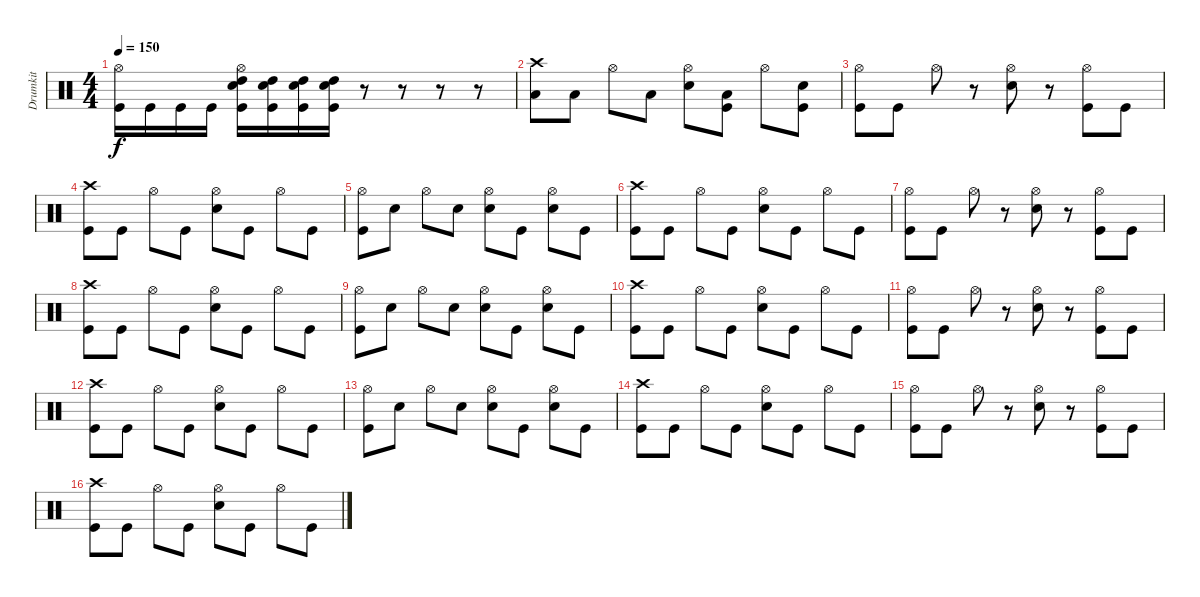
\track ("Drumkit" "Drumkit") {instrument percussion}
\staff {score}
\articulation defaults
\ts (4 4)
\tempo 150
\clef neutral
\ks c
("Hi-Hat (open)" "Kick (hit)").16{dy f} "Kick (hit)".16 "Kick (hit)".16 "Kick (hit)".16 ("Hi-Hat (open)" "High Tom (hit)" "Snare (hit) 2" "Kick (hit)").16 ("High Tom (hit)" "Snare (hit) 2" "Kick (hit)").16 ("High Tom (hit)" "Snare (hit) 2" "Kick (hit)").16 ("High Tom (hit)" "Snare (hit) 2" "Kick (hit)").16 r.8 r.8 r.8 r.8 |
("Low Floor Tom (hit)" "Crash high (hit)").8 "Low Floor Tom (hit)".8 "Hi-Hat (open)".8 "Low Floor Tom (hit)".8 ("Snare (hit) 2" "Hi-Hat (open)").8 ("Low Floor Tom (hit)" "Kick (hit)").8 "Hi-Hat (open)".8 ("Snare (hit)" "Kick (hit)").8 |
("Kick (hit)" "Hi-Hat (open)").8 "Kick (hit)".8 "Hi-Hat (open)".8 r.8 ("Snare (hit) 2" "Hi-Hat (open)").8 r.8 ("Kick (hit)" "Hi-Hat (open)").8 "Kick (hit)".8 |
("Kick (hit)" "Crash high (hit)").8 "Kick (hit)".8 "Hi-Hat (open)".8 "Kick (hit)".8 ("Snare (hit) 2" "Hi-Hat (open)").8 "Kick (hit)".8 "Hi-Hat (open)".8 "Kick (hit)".8 |
("Kick (hit)" "Hi-Hat (open)").8 "Snare (hit) 2".8 "Hi-Hat (open)".8 "Snare (hit) 2".8 ("Snare (hit) 2" "Hi-Hat (open)").8 "Kick (hit)".8 ("Snare (hit) 2" "Hi-Hat (open)").8 "Kick (hit)".8 |
("Kick (hit)" "Crash high (hit)").8 "Kick (hit)".8 "Hi-Hat (open)".8 "Kick (hit)".8 ("Snare (hit) 2" "Hi-Hat (open)").8 "Kick (hit)".8 "Hi-Hat (open)".8 "Kick (hit)".8 |
("Kick (hit)" "Hi-Hat (open)").8 "Kick (hit)".8 "Hi-Hat (open)".8 r.8 ("Snare (hit) 2" "Hi-Hat (open)").8 r.8 ("Kick (hit)" "Hi-Hat (open)").8 "Kick (hit)".8 |
("Kick (hit)" "Crash high (hit)").8 "Kick (hit)".8 "Hi-Hat (open)".8 "Kick (hit)".8 ("Snare (hit) 2" "Hi-Hat (open)").8 "Kick (hit)".8 "Hi-Hat (open)".8 "Kick (hit)".8 |
("Kick (hit)" "Hi-Hat (open)").8 "Snare (hit) 2".8 "Hi-Hat (open)".8 "Snare (hit) 2".8 ("Snare (hit) 2" "Hi-Hat (open)").8 "Kick (hit)".8 ("Snare (hit) 2" "Hi-Hat (open)").8 "Kick (hit)".8 |
("Kick (hit)" "Crash high (hit)").8 "Kick (hit)".8 "Hi-Hat (open)".8 "Kick (hit)".8 ("Snare (hit) 2" "Hi-Hat (open)").8 "Kick (hit)".8 "Hi-Hat (open)".8 "Kick (hit)".8 |
("Kick (hit)" "Hi-Hat (open)").8 "Kick (hit)".8 "Hi-Hat (open)".8 r.8 ("Snare (hit) 2" "Hi-Hat (open)").8 r.8 ("Kick (hit)" "Hi-Hat (open)").8 "Kick (hit)".8 |
("Kick (hit)" "Crash high (hit)").8 "Kick (hit)".8 "Hi-Hat (open)".8 "Kick (hit)".8 ("Snare (hit) 2" "Hi-Hat (open)").8 "Kick (hit)".8 "Hi-Hat (open)".8 "Kick (hit)".8 |
("Kick (hit)" "Hi-Hat (open)").8 "Snare (hit) 2".8 "Hi-Hat (open)".8 "Snare (hit) 2".8 ("Snare (hit) 2" "Hi-Hat (open)").8 "Kick (hit)".8 ("Snare (hit) 2" "Hi-Hat (open)").8 "Kick (hit)".8 |
("Kick (hit)" "Crash high (hit)").8 "Kick (hit)".8 "Hi-Hat (open)".8 "Kick (hit)".8 ("Snare (hit) 2" "Hi-Hat (open)").8 "Kick (hit)".8 "Hi-Hat (open)".8 "Kick (hit)".8 |
("Kick (hit)" "Hi-Hat (open)").8 "Kick (hit)".8 "Hi-Hat (open)".8 r.8 ("Snare (hit) 2" "Hi-Hat (open)").8 r.8 ("Kick (hit)" "Hi-Hat (open)").8 "Kick (hit)".8 |
("Kick (hit)" "Crash high (hit)").8 "Kick (hit)".8 "Hi-Hat (open)".8 "Kick (hit)".8 ("Snare (hit) 2" "Hi-Hat (open)").8 "Kick (hit)".8 "Hi-Hat (open)".8 "Kick (hit)".8
